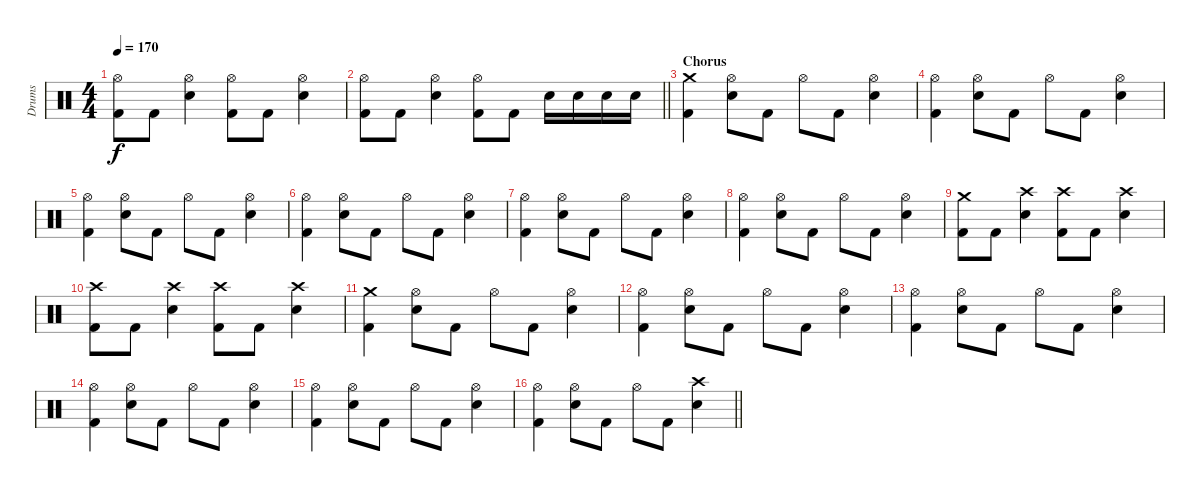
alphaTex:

\track ("Drums" "Drums") {instrument percussion}
\staff {score}
\articulation defaults
\ts (4 4)
\tempo 170
\clef neutral
\ks c
("Hi-Hat (open)" "Kick (hit) 2").8{dy f} "Kick (hit) 2".8 ("Hi-Hat (open)" "Electric Snare (hit)").4 ("Hi-Hat (open)" "Kick (hit) 2").8 "Kick (hit) 2".8 ("Hi-Hat (open)" "Electric Snare (hit)").4 |
\barLineRight lightlight
("Hi-Hat (open)" "Kick (hit) 2").8 "Kick (hit) 2".8 ("Hi-Hat (open)" "Electric Snare (hit)").4 ("Hi-Hat (open)" "Kick (hit) 2").8 "Kick (hit) 2".8 "Electric Snare (hit)".16 "Electric Snare (hit)".16 "Electric Snare (hit)".16 "Electric Snare (hit)".16 |
\section ("" "Chorus")
("Crash medium (hit)" "Kick (hit) 2").4 ("Hi-Hat (open)" "Electric Snare (hit)").8 "Kick (hit) 2".8 "Hi-Hat (open)".8 "Kick (hit) 2".8 ("Hi-Hat (open)" "Electric Snare (hit)").4 |
("Hi-Hat (open)" "Kick (hit) 2").4 ("Hi-Hat (open)" "Electric Snare (hit)").8 "Kick (hit) 2".8 "Hi-Hat (open)".8 "Kick (hit) 2".8 ("Hi-Hat (open)" "Electric Snare (hit)").4 |
("Hi-Hat (open)" "Kick (hit) 2").4 ("Hi-Hat (open)" "Electric Snare (hit)").8 "Kick (hit) 2".8 "Hi-Hat (open)".8 "Kick (hit) 2".8 ("Hi-Hat (open)" "Electric Snare (hit)").4 |
("Hi-Hat (open)" "Kick (hit) 2").4 ("Hi-Hat (open)" "Electric Snare (hit)").8 "Kick (hit) 2".8 "Hi-Hat (open)".8 "Kick (hit) 2".8 ("Hi-Hat (open)" "Electric Snare (hit)").4 |
("Hi-Hat (open)" "Kick (hit) 2").4 ("Hi-Hat (open)" "Electric Snare (hit)").8 "Kick (hit) 2".8 "Hi-Hat (open)".8 "Kick (hit) 2".8 ("Hi-Hat (open)" "Electric Snare (hit)").4 |
("Hi-Hat (open)" "Kick (hit) 2").4 ("Hi-Hat (open)" "Electric Snare (hit)").8 "Kick (hit) 2".8 "Hi-Hat (open)".8 "Kick (hit) 2".8 ("Hi-Hat (open)" "Electric Snare (hit)").4 |
("Crash medium (hit)" "Kick (hit) 2").8 "Kick (hit) 2".8 ("Crash high (hit)" "Electric Snare (hit)").4 ("Crash high (hit)" "Kick (hit) 2").8 "Kick (hit) 2".8 ("Crash high (hit)" "Electric Snare (hit)").4 |
("Crash high (hit)" "Kick (hit) 2").8 "Kick (hit) 2".8 ("Crash high (hit)" "Electric Snare (hit)").4 ("Crash high (hit)" "Kick (hit) 2").8 "Kick (hit) 2".8 ("Crash high (hit)" "Electric Snare (hit)").4 |
("Crash medium (hit)" "Kick (hit) 2").4 ("Hi-Hat (open)" "Electric Snare (hit)").8 "Kick (hit) 2".8 "Hi-Hat (open)".8 "Kick (hit) 2".8 ("Hi-Hat (open)" "Electric Snare (hit)").4 |
("Hi-Hat (open)" "Kick (hit) 2").4 ("Hi-Hat (open)" "Electric Snare (hit)").8 "Kick (hit) 2".8 "Hi-Hat (open)".8 "Kick (hit) 2".8 ("Hi-Hat (open)" "Electric Snare (hit)").4 |
("Hi-Hat (open)" "Kick (hit) 2").4 ("Hi-Hat (open)" "Electric Snare (hit)").8 "Kick (hit) 2".8 "Hi-Hat (open)".8 "Kick (hit) 2".8 ("Hi-Hat (open)" "Electric Snare (hit)").4 |
("Hi-Hat (open)" "Kick (hit) 2").4 ("Hi-Hat (open)" "Electric Snare (hit)").8 "Kick (hit) 2".8 "Hi-Hat (open)".8 "Kick (hit) 2".8 ("Hi-Hat (open)" "Electric Snare (hit)").4 |
("Hi-Hat (open)" "Kick (hit) 2").4 ("Hi-Hat (open)" "Electric Snare (hit)").8 "Kick (hit) 2".8 "Hi-Hat (open)".8 "Kick (hit) 2".8 ("Hi-Hat (open)" "Electric Snare (hit)").4 |
\barLineRight lightlight
("Hi-Hat (open)" "Kick (hit) 2").4 ("Hi-Hat (open)" "Electric Snare (hit)").8 "Kick (hit) 2".8 "Hi-Hat (open)".8 "Kick (hit) 2".8 ("Crash high (hit)" "Electric Snare (hit)").4
